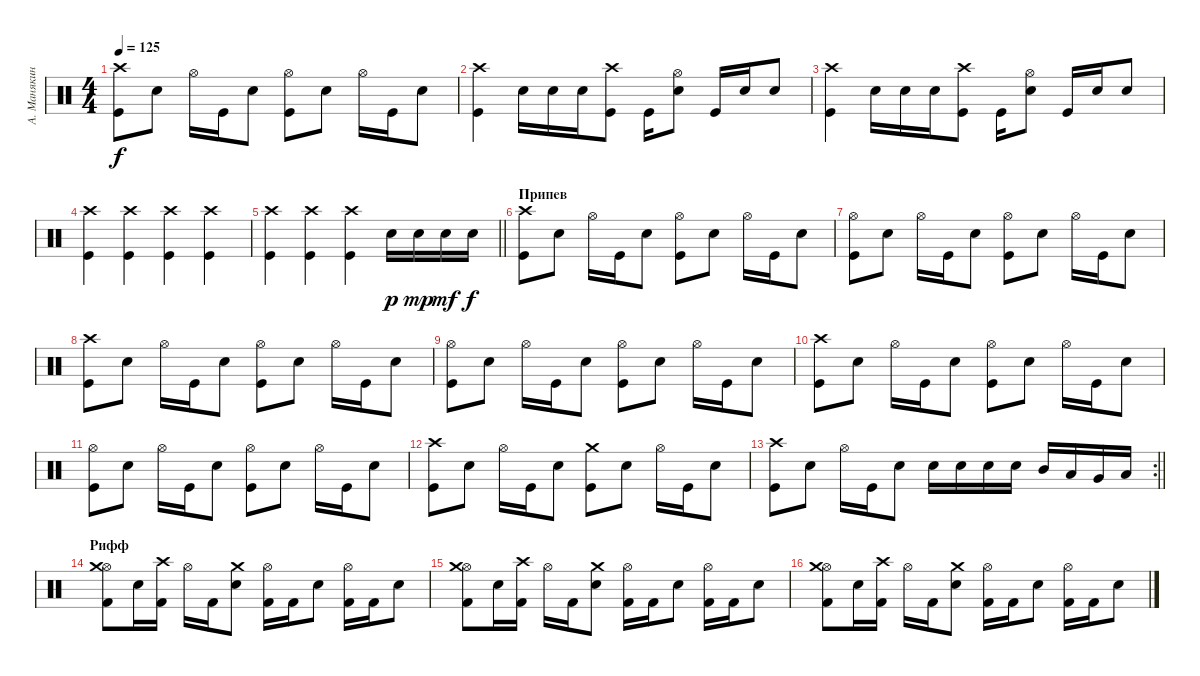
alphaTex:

\track ("А. Манякин" "А. Манякин") {instrument percussion}
\staff {score}
\articulation defaults
\ts (4 4)
\tempo 125
\clef neutral
\ks c
("Kick (hit)" "Crash high (hit)").8{dy f} "Electric Snare (hit)".8 "Hi-Hat (open)".16 "Kick (hit)".16 "Electric Snare (hit)".8 ("Kick (hit)" "Hi-Hat (open)").8 "Electric Snare (hit)".8 "Hi-Hat (open)".16 "Kick (hit)".16 "Electric Snare (hit)".8 |
("Kick (hit)" "Crash high (hit)").4 "Electric Snare (hit)".16 "Electric Snare (hit)".16 "Electric Snare (hit)".16 ("Kick (hit)" "Crash high (hit)").8 "Kick (hit)".16 ("Electric Snare (hit)" "Hi-Hat (open)").8 "Kick (hit)".16 "Electric Snare (hit)".16 "Electric Snare (hit)".8 |
("Kick (hit)" "Crash high (hit)").4 "Electric Snare (hit)".16 "Electric Snare (hit)".16 "Electric Snare (hit)".16 ("Kick (hit)" "Crash high (hit)").8 "Kick (hit)".16 ("Electric Snare (hit)" "Hi-Hat (open)").8 "Kick (hit)".16 "Electric Snare (hit)".16 "Electric Snare (hit)".8 |
("Kick (hit)" "Crash high (hit)").4 ("Kick (hit)" "Crash high (hit)").4 ("Kick (hit)" "Crash high (hit)").4 ("Kick (hit)" "Crash high (hit)").4 |
\barLineRight lightlight
("Kick (hit)" "Crash high (hit)").4 ("Kick (hit)" "Crash high (hit)").4 ("Kick (hit)" "Crash high (hit)").4 "Electric Snare (hit)".16{dy p} "Electric Snare (hit)".16{dy mp} "Electric Snare (hit)".16{dy mf} "Electric Snare (hit)".16{dy f} |
\section ("" "Припев")
("Kick (hit)" "Crash high (hit)").8 "Electric Snare (hit)".8 "Hi-Hat (open)".16 "Kick (hit)".16 "Electric Snare (hit)".8 ("Kick (hit)" "Hi-Hat (open)").8 "Electric Snare (hit)".8 "Hi-Hat (open)".16 "Kick (hit)".16 "Electric Snare (hit)".8 |
("Kick (hit)" "Hi-Hat (open)").8 "Electric Snare (hit)".8 "Hi-Hat (open)".16 "Kick (hit)".16 "Electric Snare (hit)".8 ("Kick (hit)" "Hi-Hat (open)").8 "Electric Snare (hit)".8 "Hi-Hat (open)".16 "Kick (hit)".16 "Electric Snare (hit)".8 |
("Kick (hit)" "Crash high (hit)").8 "Electric Snare (hit)".8 "Hi-Hat (open)".16 "Kick (hit)".16 "Electric Snare (hit)".8 ("Kick (hit)" "Hi-Hat (open)").8 "Electric Snare (hit)".8 "Hi-Hat (open)".16 "Kick (hit)".16 "Electric Snare (hit)".8 |
("Kick (hit)" "Hi-Hat (open)").8 "Electric Snare (hit)".8 "Hi-Hat (open)".16 "Kick (hit)".16 "Electric Snare (hit)".8 ("Kick (hit)" "Hi-Hat (open)").8 "Electric Snare (hit)".8 "Hi-Hat (open)".16 "Kick (hit)".16 "Electric Snare (hit)".8 |
("Kick (hit)" "Crash high (hit)").8 "Electric Snare (hit)".8 "Hi-Hat (open)".16 "Kick (hit)".16 "Electric Snare (hit)".8 ("Kick (hit)" "Hi-Hat (open)").8 "Electric Snare (hit)".8 "Hi-Hat (open)".16 "Kick (hit)".16 "Electric Snare (hit)".8 |
("Kick (hit)" "Hi-Hat (open)").8 "Electric Snare (hit)".8 "Hi-Hat (open)".16 "Kick (hit)".16 "Electric Snare (hit)".8 ("Kick (hit)" "Hi-Hat (open)").8 "Electric Snare (hit)".8 "Hi-Hat (open)".16 "Kick (hit)".16 "Electric Snare (hit)".8 |
("Kick (hit)" "Crash high (hit)").8 "Electric Snare (hit)".8 "Hi-Hat (open)".16 "Kick (hit)".16 "Electric Snare (hit)".8 ("Kick (hit)" "Crash medium (hit)").8 "Electric Snare (hit)".8 "Hi-Hat (open)".16 "Kick (hit)".16 "Electric Snare (hit)".8 |
\rc 2
\barLineRight lightlight
("Kick (hit)" "Crash high (hit)").8 "Electric Snare (hit)".8 "Hi-Hat (open)".16 "Kick (hit)".16 "Electric Snare (hit)".8 "Electric Snare (hit)".16 "Electric Snare (hit)".16 "Electric Snare (hit)".16 "Electric Snare (hit)".16 "Mid Tom (hit)".16 "Low Tom (hit)".16 "Very Low Tom (hit)".16 "Low Floor Tom (hit)".16 |
\section ("" "Рифф")
("Kick (hit) 2" "Hi-Hat (open)" "Crash medium (hit)").8 "Electric Snare (hit)".16 ("Kick (hit) 2" "Crash high (hit)").16 "Hi-Hat (open)".16 "Kick (hit) 2".16 ("Electric Snare (hit)" "Crash medium (hit)").8 ("Kick (hit) 2" "Hi-Hat (open)").16 "Kick (hit) 2".16 "Electric Snare (hit)".8 ("Kick (hit) 2" "Hi-Hat (open)").16 "Kick (hit) 2".16 "Electric Snare (hit)".8 |
("Kick (hit) 2" "Hi-Hat (open)" "Crash medium (hit)").8 "Electric Snare (hit)".16 ("Kick (hit) 2" "Crash high (hit)").16 "Hi-Hat (open)".16 "Kick (hit) 2".16 ("Electric Snare (hit)" "Crash medium (hit)").8 ("Kick (hit) 2" "Hi-Hat (open)").16 "Kick (hit) 2".16 "Electric Snare (hit)".8 ("Kick (hit) 2" "Hi-Hat (open)").16 "Kick (hit) 2".16 "Electric Snare (hit)".8 |
("Kick (hit) 2" "Hi-Hat (open)" "Crash medium (hit)").8 "Electric Snare (hit)".16 ("Kick (hit) 2" "Crash high (hit)").16 "Hi-Hat (open)".16 "Kick (hit) 2".16 ("Electric Snare (hit)" "Crash medium (hit)").8 ("Kick (hit) 2" "Hi-Hat (open)").16 "Kick (hit) 2".16 "Electric Snare (hit)".8 ("Kick (hit) 2" "Hi-Hat (open)").16 "Kick (hit) 2".16 "Electric Snare (hit)".8
